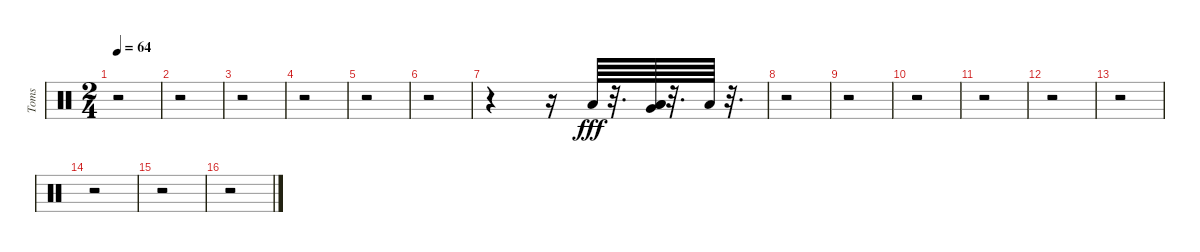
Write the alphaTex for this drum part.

\track ("Toms" "Toms") {instrument percussion}
\staff {score}
\articulation defaults
\ts (2 4)
\tempo 64
\clef neutral
\ks c
r.2{dy fff} |
r.2 |
r.2 |
r.2 |
r.2 |
r.2 |
r.4 r.16 "Low Tom (hit)".64 r.32{d} ("Low Tom (hit)" "Very Low Tom (hit)" "Low Tom (hit)").64 r.32{d} "Low Floor Tom (hit)".64 r.32{d} |
r.2 |
r.2 |
r.2 |
r.2 |
r.2 |
r.2 |
r.2 |
r.2 |
r.2
